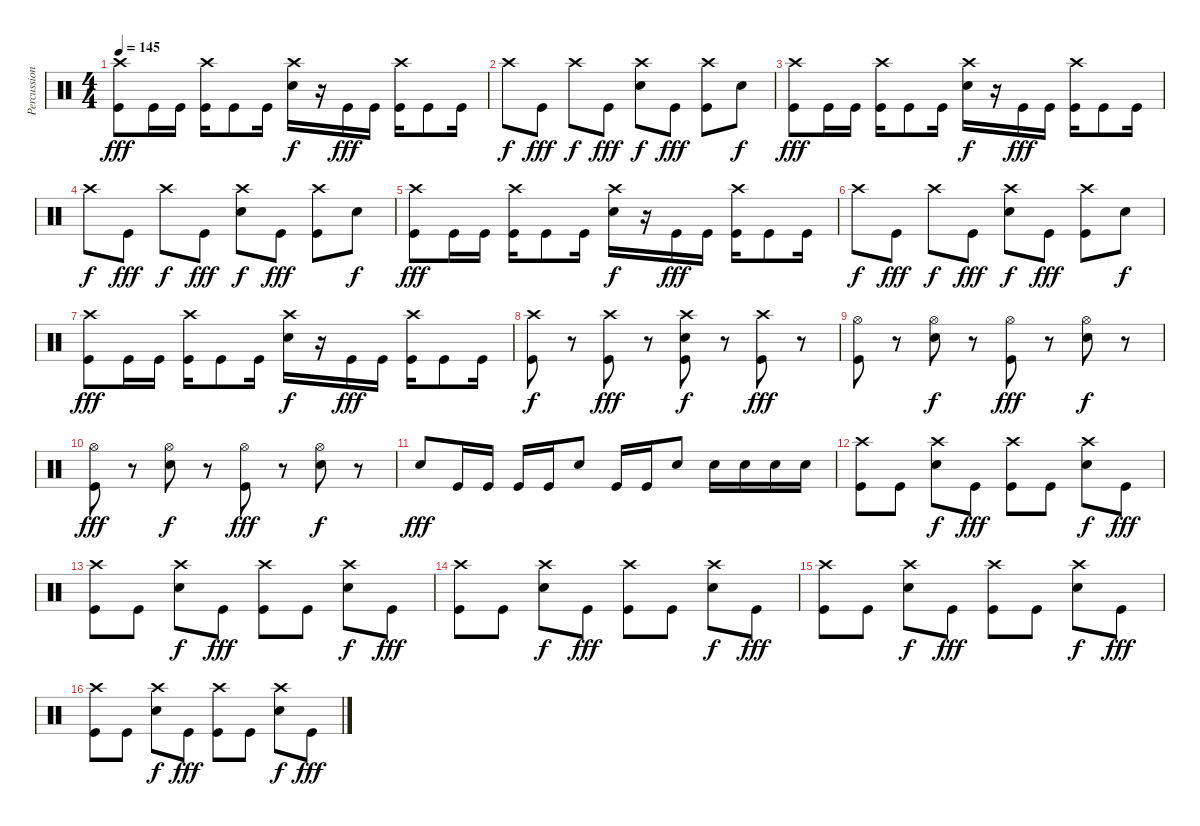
\track ("Percussion" "Percussion") {instrument percussion}
\staff {score}
\articulation defaults
\ts (4 4)
\tempo 145
\clef neutral
\ks c
("Crash high (hit)" "Kick (hit)").8{dy fff} "Kick (hit)".16 "Kick (hit)".16 ("Crash high (hit)" "Kick (hit)").16 "Kick (hit)".8 "Kick (hit)".16 ("Crash high (hit)" "Electric Snare (hit)").16{dy f} r.16 "Kick (hit)".16{dy fff} "Kick (hit)".16 ("Crash high (hit)" "Kick (hit)").16 "Kick (hit)".8 "Kick (hit)".16 |
"Crash high (hit)".8{dy f} "Kick (hit)".8{dy fff} "Crash high (hit)".8{dy f} "Kick (hit)".8{dy fff} ("Crash high (hit)" "Electric Snare (hit)").8{dy f} "Kick (hit)".8{dy fff} ("Crash high (hit)" "Kick (hit)").8 "Electric Snare (hit)".8{dy f} |
("Crash high (hit)" "Kick (hit)").8{dy fff} "Kick (hit)".16 "Kick (hit)".16 ("Crash high (hit)" "Kick (hit)").16 "Kick (hit)".8 "Kick (hit)".16 ("Crash high (hit)" "Electric Snare (hit)").16{dy f} r.16 "Kick (hit)".16{dy fff} "Kick (hit)".16 ("Crash high (hit)" "Kick (hit)").16 "Kick (hit)".8 "Kick (hit)".16 |
"Crash high (hit)".8{dy f} "Kick (hit)".8{dy fff} "Crash high (hit)".8{dy f} "Kick (hit)".8{dy fff} ("Crash high (hit)" "Electric Snare (hit)").8{dy f} "Kick (hit)".8{dy fff} ("Crash high (hit)" "Kick (hit)").8 "Electric Snare (hit)".8{dy f} |
("Crash high (hit)" "Kick (hit)").8{dy fff} "Kick (hit)".16 "Kick (hit)".16 ("Crash high (hit)" "Kick (hit)").16 "Kick (hit)".8 "Kick (hit)".16 ("Crash high (hit)" "Electric Snare (hit)").16{dy f} r.16 "Kick (hit)".16{dy fff} "Kick (hit)".16 ("Crash high (hit)" "Kick (hit)").16 "Kick (hit)".8 "Kick (hit)".16 |
"Crash high (hit)".8{dy f} "Kick (hit)".8{dy fff} "Crash high (hit)".8{dy f} "Kick (hit)".8{dy fff} ("Crash high (hit)" "Electric Snare (hit)").8{dy f} "Kick (hit)".8{dy fff} ("Crash high (hit)" "Kick (hit)").8 "Electric Snare (hit)".8{dy f} |
("Crash high (hit)" "Kick (hit)").8{dy fff} "Kick (hit)".16 "Kick (hit)".16 ("Crash high (hit)" "Kick (hit)").16 "Kick (hit)".8 "Kick (hit)".16 ("Crash high (hit)" "Electric Snare (hit)").16{dy f} r.16 "Kick (hit)".16{dy fff} "Kick (hit)".16 ("Crash high (hit)" "Kick (hit)").16 "Kick (hit)".8 "Kick (hit)".16 |
("Crash high (hit)" "Kick (hit)").8{dy f} r.8 ("Crash high (hit)" "Kick (hit)").8{dy fff} r.8 ("Crash high (hit)" "Electric Snare (hit)" "Kick (hit)").8{dy f} r.8 ("Crash high (hit)" "Kick (hit)").8{dy fff} r.8 |
("Hi-Hat (open)" "Kick (hit)").8 r.8 ("Hi-Hat (open)" "Electric Snare (hit)").8{dy f} r.8 ("Hi-Hat (open)" "Kick (hit)").8{dy fff} r.8 ("Hi-Hat (open)" "Electric Snare (hit)").8{dy f} r.8 |
("Hi-Hat (open)" "Kick (hit)").8{dy fff} r.8 ("Hi-Hat (open)" "Electric Snare (hit)").8{dy f} r.8 ("Hi-Hat (open)" "Kick (hit)").8{dy fff} r.8 ("Hi-Hat (open)" "Electric Snare (hit)").8{dy f} r.8 |
"Electric Snare (hit)".8{dy fff} "Kick (hit)".16 "Kick (hit)".16 "Kick (hit)".16 "Kick (hit)".16 "Electric Snare (hit)".8 "Kick (hit)".16 "Kick (hit)".16 "Electric Snare (hit)".8 "Electric Snare (hit)".16 "Electric Snare (hit)".16 "Electric Snare (hit)".16 "Electric Snare (hit)".16 |
("Crash high (hit)" "Kick (hit)").8 "Kick (hit)".8 ("Crash high (hit)" "Electric Snare (hit)").8{dy f} "Kick (hit)".8{dy fff} ("Crash high (hit)" "Kick (hit)").8 "Kick (hit)".8 ("Crash high (hit)" "Electric Snare (hit)").8{dy f} "Kick (hit)".8{dy fff} |
("Crash high (hit)" "Kick (hit)").8 "Kick (hit)".8 ("Crash high (hit)" "Electric Snare (hit)").8{dy f} "Kick (hit)".8{dy fff} ("Crash high (hit)" "Kick (hit)").8 "Kick (hit)".8 ("Crash high (hit)" "Electric Snare (hit)").8{dy f} "Kick (hit)".8{dy fff} |
("Crash high (hit)" "Kick (hit)").8 "Kick (hit)".8 ("Crash high (hit)" "Electric Snare (hit)").8{dy f} "Kick (hit)".8{dy fff} ("Crash high (hit)" "Kick (hit)").8 "Kick (hit)".8 ("Crash high (hit)" "Electric Snare (hit)").8{dy f} "Kick (hit)".8{dy fff} |
("Crash high (hit)" "Kick (hit)").8 "Kick (hit)".8 ("Crash high (hit)" "Electric Snare (hit)").8{dy f} "Kick (hit)".8{dy fff} ("Crash high (hit)" "Kick (hit)").8 "Kick (hit)".8 ("Crash high (hit)" "Electric Snare (hit)").8{dy f} "Kick (hit)".8{dy fff} |
("Crash high (hit)" "Kick (hit)").8 "Kick (hit)".8 ("Crash high (hit)" "Electric Snare (hit)").8{dy f} "Kick (hit)".8{dy fff} ("Crash high (hit)" "Kick (hit)").8 "Kick (hit)".8 ("Crash high (hit)" "Electric Snare (hit)").8{dy f} "Kick (hit)".8{dy fff}
